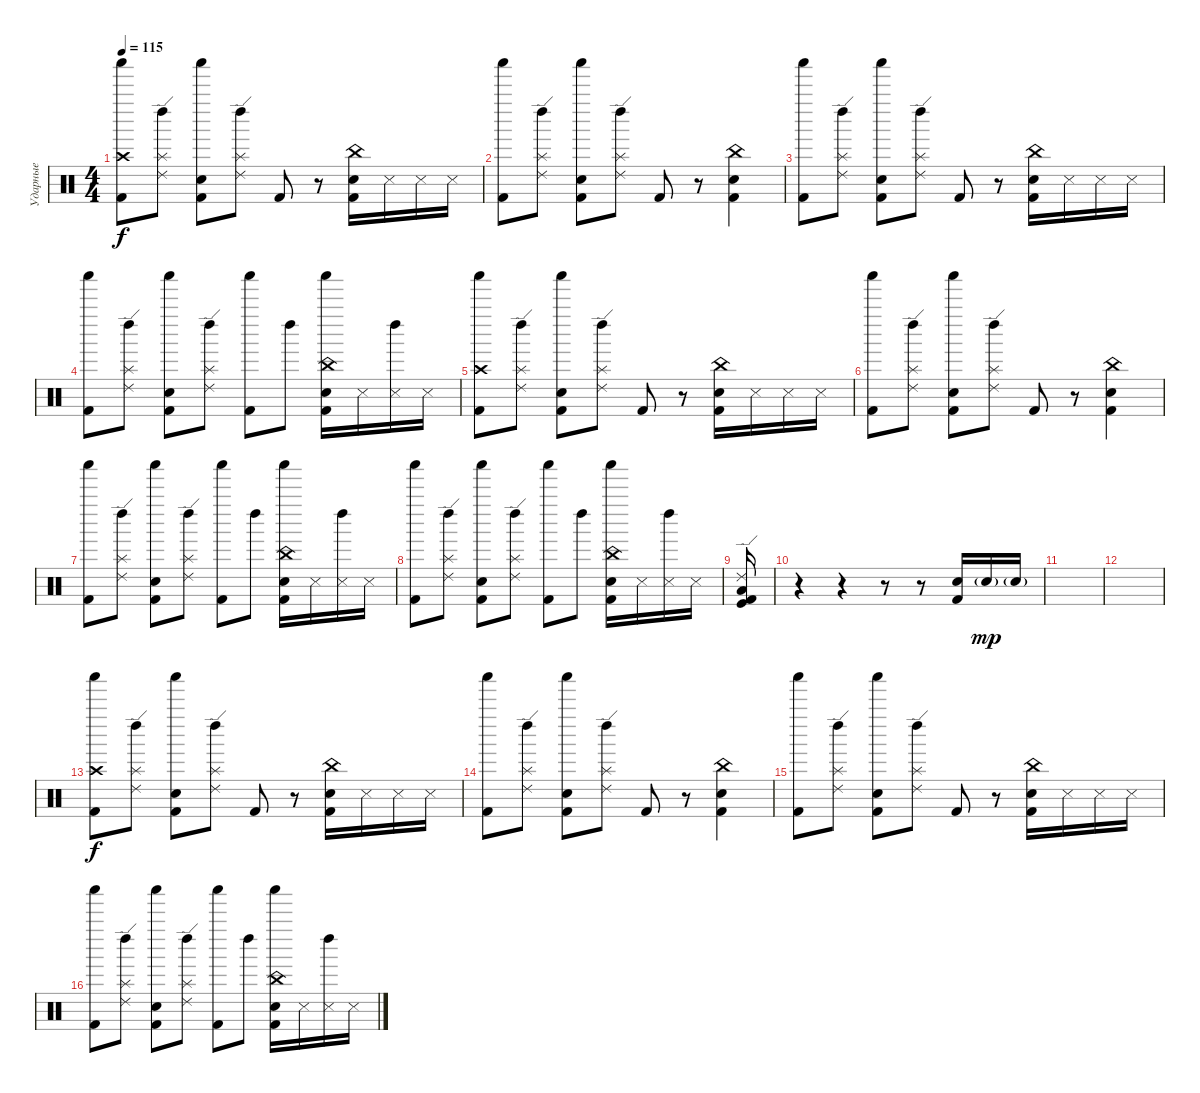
\track ("Ударные" "Ударные") {instrument percussion}
\staff {score}
\articulation defaults
\ts (4 4)
\tempo 115
\clef neutral
\ks c
("Kick (hit) 2" "Shaker (hit)" "Crash high (hit)").8{dy f} ("Left Maraca (hit)" "Ride (edge) 2" "Splash (hit)").8 ("Kick (hit) 2" "Snare (hit) 2" "Shaker (hit)").8 ("Left Maraca (hit)" "Ride (edge) 2" "Splash (hit)").8 "Kick (hit) 2".8 r.8 ("Kick (hit) 2" "China (hit)" "Snare (hit) 2").16 "Snare (side stick) 3".16 "Snare (side stick) 3".16 "Snare (side stick) 3".16 |
("Kick (hit) 2" "Shaker (hit)").8 ("Left Maraca (hit)" "Ride (edge) 2" "Splash (hit)").8 ("Kick (hit) 2" "Snare (hit) 2" "Shaker (hit)").8 ("Left Maraca (hit)" "Ride (edge) 2" "Splash (hit)").8 "Kick (hit) 2".8 r.8 ("Kick (hit) 2" "China (hit)" "Snare (hit) 2").4 |
("Kick (hit) 2" "Shaker (hit)").8 ("Left Maraca (hit)" "Ride (edge) 2" "Splash (hit)").8 ("Kick (hit) 2" "Snare (hit) 2" "Shaker (hit)").8 ("Left Maraca (hit)" "Ride (edge) 2" "Splash (hit)").8 "Kick (hit) 2".8 r.8 ("Kick (hit) 2" "China (hit)" "Snare (hit) 2").16 "Snare (side stick) 3".16 "Snare (side stick) 3".16 "Snare (side stick) 3".16 |
("Kick (hit) 2" "Shaker (hit)").8 ("Left Maraca (hit)" "Ride (edge) 2" "Splash (hit)").8 ("Kick (hit) 2" "Snare (hit) 2" "Shaker (hit)").8 ("Left Maraca (hit)" "Ride (edge) 2" "Splash (hit)").8 ("Kick (hit) 2" "Shaker (hit)").8 "Left Maraca (hit)".8 ("Kick (hit) 2" "China (hit)" "Snare (hit) 2" "Shaker (hit)").16 "Snare (side stick) 3".16 ("Snare (side stick) 3" "Left Maraca (hit)").16 "Snare (side stick) 3".16 |
("Kick (hit) 2" "Shaker (hit)" "Crash high (hit)").8 ("Left Maraca (hit)" "Ride (edge) 2" "Splash (hit)").8 ("Kick (hit) 2" "Snare (hit) 2" "Shaker (hit)").8 ("Left Maraca (hit)" "Ride (edge) 2" "Splash (hit)").8 "Kick (hit) 2".8 r.8 ("Kick (hit) 2" "China (hit)" "Snare (hit) 2").16 "Snare (side stick) 3".16 "Snare (side stick) 3".16 "Snare (side stick) 3".16 |
("Kick (hit) 2" "Shaker (hit)").8 ("Left Maraca (hit)" "Ride (edge) 2" "Splash (hit)").8 ("Kick (hit) 2" "Snare (hit) 2" "Shaker (hit)").8 ("Left Maraca (hit)" "Ride (edge) 2" "Splash (hit)").8 "Kick (hit) 2".8 r.8 ("Kick (hit) 2" "China (hit)" "Snare (hit) 2").4 |
("Kick (hit) 2" "Shaker (hit)").8 ("Left Maraca (hit)" "Ride (edge) 2" "Splash (hit)").8 ("Kick (hit) 2" "Snare (hit) 2" "Shaker (hit)").8 ("Left Maraca (hit)" "Ride (edge) 2" "Splash (hit)").8 ("Kick (hit) 2" "Shaker (hit)").8 "Left Maraca (hit)".8 ("Kick (hit) 2" "China (hit)" "Snare (hit) 2" "Shaker (hit)").16 "Snare (side stick) 3".16 ("Snare (side stick) 3" "Left Maraca (hit)").16 "Snare (side stick) 3".16 |
("Kick (hit) 2" "Shaker (hit)").8 ("Left Maraca (hit)" "Ride (edge) 2" "Splash (hit)").8 ("Kick (hit) 2" "Snare (hit) 2" "Shaker (hit)").8 ("Left Maraca (hit)" "Ride (edge) 2" "Splash (hit)").8 ("Kick (hit) 2" "Shaker (hit)").8 "Left Maraca (hit)".8 ("Kick (hit) 2" "China (hit)" "Snare (hit) 2" "Shaker (hit)").16 "Snare (side stick) 3".16 ("Snare (side stick) 3" "Left Maraca (hit)").16 "Snare (side stick) 3".16 |
("Kick (hit)" "Ride (edge) 2" "Kick (hit) 2" "Low Floor Tom (hit)").16 |
r.4 r.4 r.8 r.8 ("Snare (hit) 2" "Kick (hit) 2").16 "Snare (hit) 2"{g}.16{dy mp} "Snare (hit) 2"{g}.16 |
|
|
("Kick (hit) 2" "Shaker (hit)" "Crash high (hit)").8{dy f} ("Left Maraca (hit)" "Ride (edge) 2" "Splash (hit)").8 ("Kick (hit) 2" "Snare (hit) 2" "Shaker (hit)").8 ("Left Maraca (hit)" "Ride (edge) 2" "Splash (hit)").8 "Kick (hit) 2".8 r.8 ("Kick (hit) 2" "China (hit)" "Snare (hit) 2").16 "Snare (side stick) 3".16 "Snare (side stick) 3".16 "Snare (side stick) 3".16 |
("Kick (hit) 2" "Shaker (hit)").8 ("Left Maraca (hit)" "Ride (edge) 2" "Splash (hit)").8 ("Kick (hit) 2" "Snare (hit) 2" "Shaker (hit)").8 ("Left Maraca (hit)" "Ride (edge) 2" "Splash (hit)").8 "Kick (hit) 2".8 r.8 ("Kick (hit) 2" "China (hit)" "Snare (hit) 2").4 |
("Kick (hit) 2" "Shaker (hit)").8 ("Left Maraca (hit)" "Ride (edge) 2" "Splash (hit)").8 ("Kick (hit) 2" "Snare (hit) 2" "Shaker (hit)").8 ("Left Maraca (hit)" "Ride (edge) 2" "Splash (hit)").8 "Kick (hit) 2".8 r.8 ("Kick (hit) 2" "China (hit)" "Snare (hit) 2").16 "Snare (side stick) 3".16 "Snare (side stick) 3".16 "Snare (side stick) 3".16 |
("Kick (hit) 2" "Shaker (hit)").8 ("Left Maraca (hit)" "Ride (edge) 2" "Splash (hit)").8 ("Kick (hit) 2" "Snare (hit) 2" "Shaker (hit)").8 ("Left Maraca (hit)" "Ride (edge) 2" "Splash (hit)").8 ("Kick (hit) 2" "Shaker (hit)").8 "Left Maraca (hit)".8 ("Kick (hit) 2" "China (hit)" "Snare (hit) 2" "Shaker (hit)").16 "Snare (side stick) 3".16 ("Snare (side stick) 3" "Left Maraca (hit)").16 "Snare (side stick) 3".16
